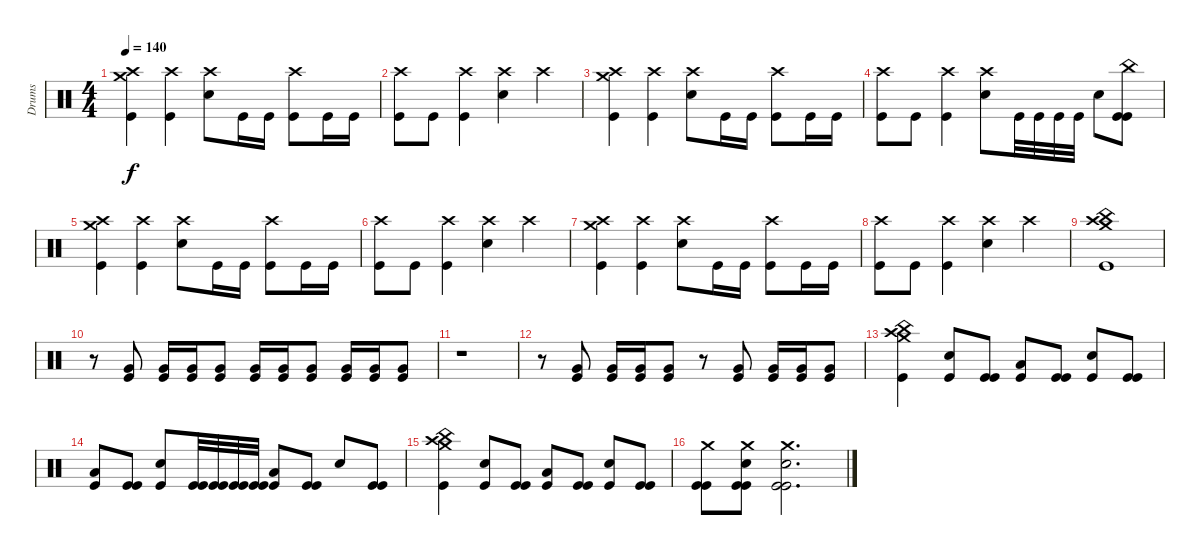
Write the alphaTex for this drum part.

\track ("Drums" "Drums") {instrument percussion bank 97}
\staff {score}
\articulation defaults
\ts (4 4)
\tempo 140
\clef neutral
\ks c
("Crash medium (hit)" "Crash high (hit)" "Kick (hit)").4{dy f} ("Crash high (hit)" "Kick (hit)").4 ("Crash high (hit)" "Electric Snare (hit)").8 "Kick (hit)".16 "Kick (hit)".16 ("Crash high (hit)" "Kick (hit)").8 "Kick (hit)".16 "Kick (hit)".16 |
("Crash high (hit)" "Kick (hit)").8 "Kick (hit)".8 ("Crash high (hit)" "Kick (hit)").4 ("Crash high (hit)" "Electric Snare (hit)").4 "Crash high (hit)".4 |
("Crash medium (hit)" "Crash high (hit)" "Kick (hit)").4 ("Crash high (hit)" "Kick (hit)").4 ("Crash high (hit)" "Electric Snare (hit)").8 "Kick (hit)".16 "Kick (hit)".16 ("Crash high (hit)" "Kick (hit)").8 "Kick (hit)".16 "Kick (hit)".16 |
("Crash high (hit)" "Kick (hit)").8 "Kick (hit)".8 ("Crash high (hit)" "Kick (hit)").4 ("Crash high (hit)" "Electric Snare (hit)").8 "Kick (hit)".32 "Kick (hit)".32 "Kick (hit)".32 "Kick (hit)".32 "Electric Snare (hit)".8 ("China (hit)" "Kick (hit)" "Kick (hit)").8 |
("Crash medium (hit)" "Crash high (hit)" "Kick (hit)").4 ("Crash high (hit)" "Kick (hit)").4 ("Crash high (hit)" "Electric Snare (hit)").8 "Kick (hit)".16 "Kick (hit)".16 ("Crash high (hit)" "Kick (hit)").8 "Kick (hit)".16 "Kick (hit)".16 |
("Crash high (hit)" "Kick (hit)").8 "Kick (hit)".8 ("Crash high (hit)" "Kick (hit)").4 ("Crash high (hit)" "Electric Snare (hit)").4 "Crash high (hit)".4 |
("Crash medium (hit)" "Crash high (hit)" "Kick (hit)").4 ("Crash high (hit)" "Kick (hit)").4 ("Crash high (hit)" "Electric Snare (hit)").8 "Kick (hit)".16 "Kick (hit)".16 ("Crash high (hit)" "Kick (hit)").8 "Kick (hit)".16 "Kick (hit)".16 |
("Crash high (hit)" "Kick (hit)").8 "Kick (hit)".8 ("Crash high (hit)" "Kick (hit)").4 ("Crash high (hit)" "Electric Snare (hit)").4 "Crash high (hit)".4 |
("Crash medium (hit)" "Crash high (hit)" "China (hit)" "Kick (hit)").1 |
r.8 ("Very Low Tom (hit)" "Kick (hit)").8 ("Very Low Tom (hit)" "Kick (hit)").16 ("Very Low Tom (hit)" "Kick (hit)").16 ("Very Low Tom (hit)" "Kick (hit)").8 ("Very Low Tom (hit)" "Kick (hit)").16 ("Very Low Tom (hit)" "Kick (hit)").16 ("Very Low Tom (hit)" "Kick (hit)").8 ("Very Low Tom (hit)" "Kick (hit)").16 ("Very Low Tom (hit)" "Kick (hit)").16 ("Very Low Tom (hit)" "Kick (hit)").8 |
r.1 |
r.8 ("Very Low Tom (hit)" "Kick (hit)").8 ("Very Low Tom (hit)" "Kick (hit)").16 ("Very Low Tom (hit)" "Kick (hit)").16 ("Very Low Tom (hit)" "Kick (hit)").8 r.8 ("Very Low Tom (hit)" "Kick (hit)").8 ("Very Low Tom (hit)" "Kick (hit)").16 ("Very Low Tom (hit)" "Kick (hit)").16 ("Very Low Tom (hit)" "Kick (hit)").8 |
("Crash medium (hit)" "Crash high (hit)" "China (hit)" "Kick (hit)").4 ("Electric Snare (hit)" "Kick (hit)").8 ("Kick (hit)" "Kick (hit)").8 ("Low Tom (hit)" "Kick (hit)").8 ("Kick (hit)" "Kick (hit)").8 ("Electric Snare (hit)" "Kick (hit)").8 ("Kick (hit)" "Kick (hit)").8 |
("Low Tom (hit)" "Kick (hit)").8 ("Kick (hit)" "Kick (hit)").8 ("Electric Snare (hit)" "Kick (hit)").8 ("Kick (hit)" "Kick (hit)").32 ("Kick (hit)" "Kick (hit)").32 ("Kick (hit)" "Kick (hit)").32 ("Kick (hit)" "Kick (hit)").32 ("Low Tom (hit)" "Kick (hit)").8 ("Kick (hit)" "Kick (hit)").8 "Electric Snare (hit)".8 ("Kick (hit)" "Kick (hit)").8 |
("Crash medium (hit)" "Crash high (hit)" "China (hit)" "Kick (hit)").4 ("Electric Snare (hit)" "Kick (hit)").8 ("Kick (hit)" "Kick (hit)").8 ("Low Tom (hit)" "Kick (hit)").8 ("Kick (hit)" "Kick (hit)").8 ("Electric Snare (hit)" "Kick (hit)").8 ("Kick (hit)" "Kick (hit)").8 |
("Crash medium (hit)" "Kick (hit)" "Kick (hit)").8 ("Crash medium (hit)" "Electric Snare (hit)" "Kick (hit)" "Kick (hit)").8 ("Crash medium (hit)" "Electric Snare (hit)" "Kick (hit)" "Kick (hit)").2{d}
